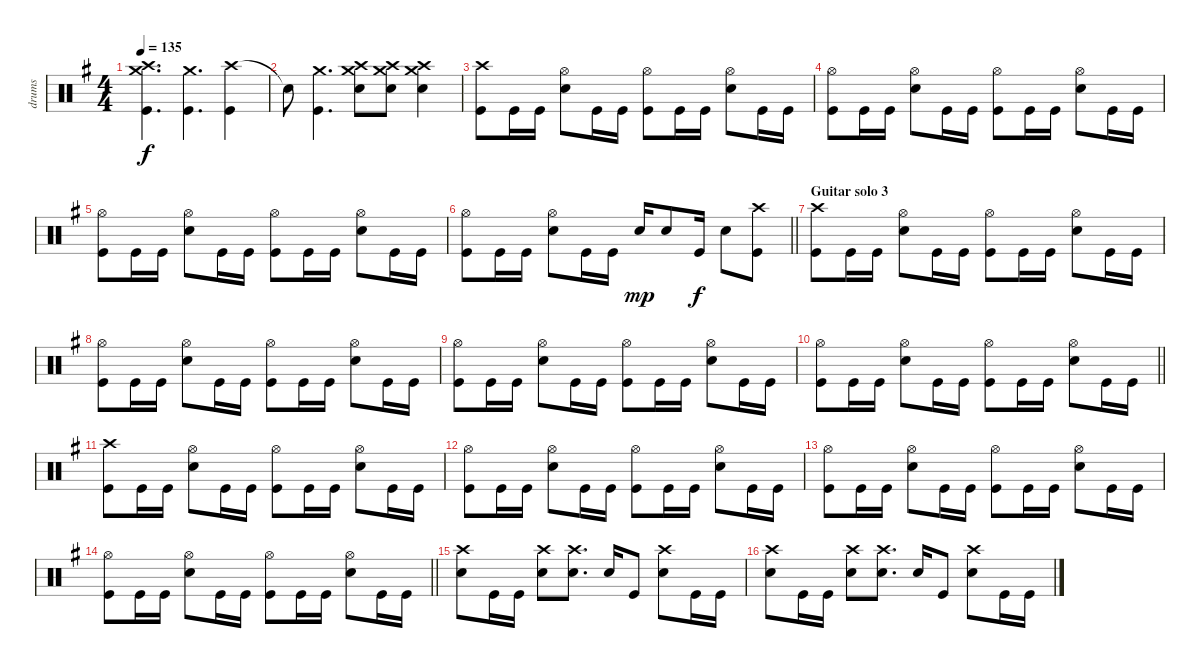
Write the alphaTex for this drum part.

\track ("drums" "drums") {instrument percussion}
\staff {score}
\articulation defaults
\ts (4 4)
\tempo 135
\clef neutral
\ks eminor
("Crash high (hit)" "Crash medium (hit)" "Kick (hit)").4{d dy f} ("Crash medium (hit)" "Kick (hit)").4{d} ("Crash high (hit)" "Kick (hit)").4 |
"Snare (hit) 2"{t}.8 ("Crash medium (hit)" "Kick (hit)").4{d} ("Crash high (hit)" "Crash medium (hit)" "Snare (hit) 2").8 ("Crash high (hit)" "Crash medium (hit)" "Snare (hit) 2").8 ("Crash high (hit)" "Crash medium (hit)" "Snare (hit) 2").4 |
("Crash high (hit)" "Kick (hit)").8 "Kick (hit)".16 "Kick (hit)".16 ("Hi-Hat (open)" "Snare (hit) 2").8 "Kick (hit)".16 "Kick (hit)".16 ("Hi-Hat (open)" "Kick (hit)").8 "Kick (hit)".16 "Kick (hit)".16 ("Hi-Hat (open)" "Snare (hit) 2").8 "Kick (hit)".16 "Kick (hit)".16 |
("Hi-Hat (open)" "Kick (hit)").8 "Kick (hit)".16 "Kick (hit)".16 ("Hi-Hat (open)" "Snare (hit) 2").8 "Kick (hit)".16 "Kick (hit)".16 ("Hi-Hat (open)" "Kick (hit)").8 "Kick (hit)".16 "Kick (hit)".16 ("Hi-Hat (open)" "Snare (hit) 2").8 "Kick (hit)".16 "Kick (hit)".16 |
("Hi-Hat (open)" "Kick (hit)").8 "Kick (hit)".16 "Kick (hit)".16 ("Hi-Hat (open)" "Snare (hit) 2").8 "Kick (hit)".16 "Kick (hit)".16 ("Hi-Hat (open)" "Kick (hit)").8 "Kick (hit)".16 "Kick (hit)".16 ("Hi-Hat (open)" "Snare (hit) 2").8 "Kick (hit)".16 "Kick (hit)".16 |
\barLineRight lightlight
("Hi-Hat (open)" "Kick (hit)").8 "Kick (hit)".16 "Kick (hit)".16 ("Hi-Hat (open)" "Snare (hit) 2").8 "Kick (hit)".16 "Kick (hit)".16 "Snare (hit) 2".16{dy mp} "Snare (hit) 2".8 "Kick (hit)".16{dy f} "Snare (hit) 2".8 ("Crash high (hit)" "Kick (hit)").8 |
\section ("" "Guitar solo 3")
("Crash high (hit)" "Kick (hit)").8 "Kick (hit)".16 "Kick (hit)".16 ("Hi-Hat (open)" "Snare (hit) 2").8 "Kick (hit)".16 "Kick (hit)".16 ("Hi-Hat (open)" "Kick (hit)").8 "Kick (hit)".16 "Kick (hit)".16 ("Hi-Hat (open)" "Snare (hit) 2").8 "Kick (hit)".16 "Kick (hit)".16 |
("Hi-Hat (open)" "Kick (hit)").8 "Kick (hit)".16 "Kick (hit)".16 ("Hi-Hat (open)" "Snare (hit) 2").8 "Kick (hit)".16 "Kick (hit)".16 ("Hi-Hat (open)" "Kick (hit)").8 "Kick (hit)".16 "Kick (hit)".16 ("Hi-Hat (open)" "Snare (hit) 2").8 "Kick (hit)".16 "Kick (hit)".16 |
("Hi-Hat (open)" "Kick (hit)").8 "Kick (hit)".16 "Kick (hit)".16 ("Hi-Hat (open)" "Snare (hit) 2").8 "Kick (hit)".16 "Kick (hit)".16 ("Hi-Hat (open)" "Kick (hit)").8 "Kick (hit)".16 "Kick (hit)".16 ("Hi-Hat (open)" "Snare (hit) 2").8 "Kick (hit)".16 "Kick (hit)".16 |
\barLineRight lightlight
("Hi-Hat (open)" "Kick (hit)").8 "Kick (hit)".16 "Kick (hit)".16 ("Hi-Hat (open)" "Snare (hit) 2").8 "Kick (hit)".16 "Kick (hit)".16 ("Hi-Hat (open)" "Kick (hit)").8 "Kick (hit)".16 "Kick (hit)".16 ("Hi-Hat (open)" "Snare (hit) 2").8 "Kick (hit)".16 "Kick (hit)".16 |
("Crash high (hit)" "Kick (hit)").8 "Kick (hit)".16 "Kick (hit)".16 ("Hi-Hat (open)" "Snare (hit) 2").8 "Kick (hit)".16 "Kick (hit)".16 ("Hi-Hat (open)" "Kick (hit)").8 "Kick (hit)".16 "Kick (hit)".16 ("Hi-Hat (open)" "Snare (hit) 2").8 "Kick (hit)".16 "Kick (hit)".16 |
("Hi-Hat (open)" "Kick (hit)").8 "Kick (hit)".16 "Kick (hit)".16 ("Hi-Hat (open)" "Snare (hit) 2").8 "Kick (hit)".16 "Kick (hit)".16 ("Hi-Hat (open)" "Kick (hit)").8 "Kick (hit)".16 "Kick (hit)".16 ("Hi-Hat (open)" "Snare (hit) 2").8 "Kick (hit)".16 "Kick (hit)".16 |
("Hi-Hat (open)" "Kick (hit)").8 "Kick (hit)".16 "Kick (hit)".16 ("Hi-Hat (open)" "Snare (hit) 2").8 "Kick (hit)".16 "Kick (hit)".16 ("Hi-Hat (open)" "Kick (hit)").8 "Kick (hit)".16 "Kick (hit)".16 ("Hi-Hat (open)" "Snare (hit) 2").8 "Kick (hit)".16 "Kick (hit)".16 |
\barLineRight lightlight
("Hi-Hat (open)" "Kick (hit)").8 "Kick (hit)".16 "Kick (hit)".16 ("Hi-Hat (open)" "Snare (hit) 2").8 "Kick (hit)".16 "Kick (hit)".16 ("Hi-Hat (open)" "Kick (hit)").8 "Kick (hit)".16 "Kick (hit)".16 ("Hi-Hat (open)" "Snare (hit) 2").8 "Kick (hit)".16 "Kick (hit)".16 |
("Crash high (hit)" "Snare (hit) 2").8 "Kick (hit)".16 "Kick (hit)".16 ("Crash high (hit)" "Snare (hit) 2").8 ("Crash high (hit)" "Snare (hit) 2").8{d} "Snare (hit) 2".16 "Kick (hit)".8 ("Crash high (hit)" "Snare (hit) 2").8 "Kick (hit)".16 "Kick (hit)".16 |
("Crash high (hit)" "Snare (hit) 2").8 "Kick (hit)".16 "Kick (hit)".16 ("Crash high (hit)" "Snare (hit) 2").8 ("Crash high (hit)" "Snare (hit) 2").8{d} "Snare (hit) 2".16 "Kick (hit)".8 ("Crash high (hit)" "Snare (hit) 2").8 "Kick (hit)".16 "Kick (hit)".16
